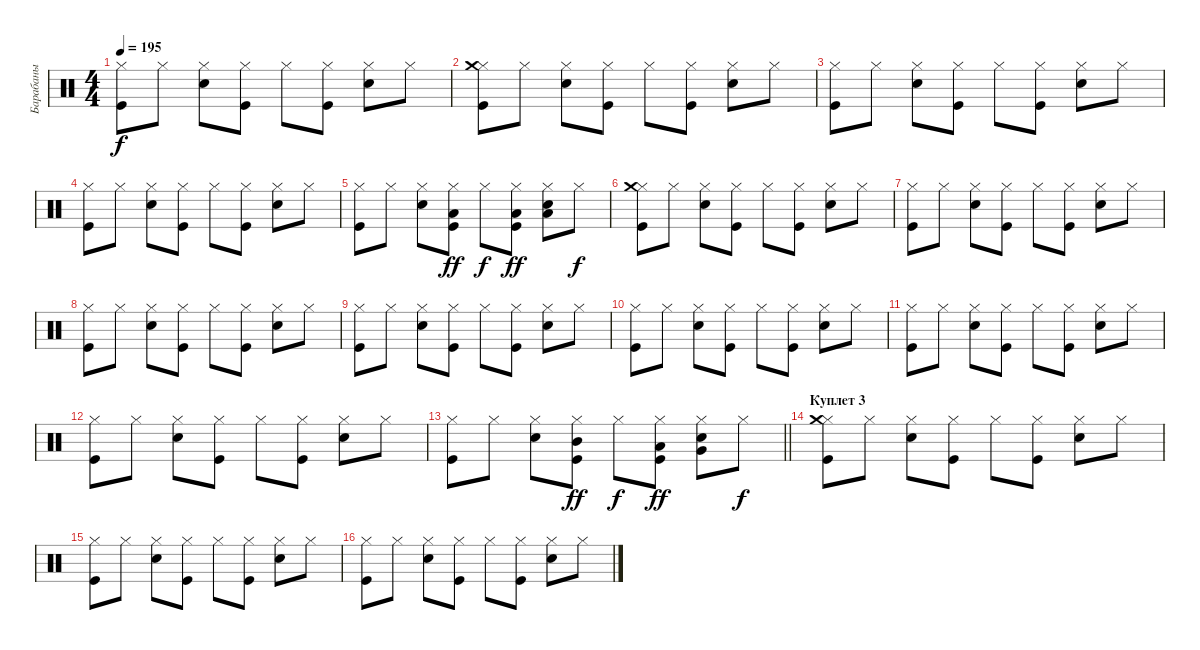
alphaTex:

\track ("Барабаны" "Барабаны") {instrument percussion}
\staff {score}
\articulation defaults
\ts (4 4)
\tempo 195
\clef neutral
\ks c
("Kick (hit)" "Hi-Hat (closed)").8{dy f} "Hi-Hat (closed)".8 ("Snare (hit) 2" "Hi-Hat (closed)").8 ("Kick (hit)" "Hi-Hat (closed)").8 "Hi-Hat (closed)".8 ("Kick (hit)" "Hi-Hat (closed)").8 ("Snare (hit) 2" "Hi-Hat (closed)").8 "Hi-Hat (closed)".8 |
("Kick (hit)" "Hi-Hat (closed)" "Crash medium (hit)").8 "Hi-Hat (closed)".8 ("Snare (hit) 2" "Hi-Hat (closed)").8 ("Kick (hit)" "Hi-Hat (closed)").8 "Hi-Hat (closed)".8 ("Kick (hit)" "Hi-Hat (closed)").8 ("Snare (hit) 2" "Hi-Hat (closed)").8 "Hi-Hat (closed)".8 |
("Kick (hit)" "Hi-Hat (closed)").8 "Hi-Hat (closed)".8 ("Snare (hit) 2" "Hi-Hat (closed)").8 ("Kick (hit)" "Hi-Hat (closed)").8 "Hi-Hat (closed)".8 ("Kick (hit)" "Hi-Hat (closed)").8 ("Snare (hit) 2" "Hi-Hat (closed)").8 "Hi-Hat (closed)".8 |
("Kick (hit)" "Hi-Hat (closed)").8 "Hi-Hat (closed)".8 ("Snare (hit) 2" "Hi-Hat (closed)").8 ("Kick (hit)" "Hi-Hat (closed)").8 "Hi-Hat (closed)".8 ("Kick (hit)" "Hi-Hat (closed)").8 ("Snare (hit) 2" "Hi-Hat (closed)").8 "Hi-Hat (closed)".8 |
("Kick (hit)" "Hi-Hat (closed)").8 "Hi-Hat (closed)".8 ("Snare (hit) 2" "Hi-Hat (closed)").8 ("Kick (hit)" "Hi-Hat (closed)" "Low Tom (hit)").8{dy ff} "Hi-Hat (closed)".8{dy f} ("Kick (hit)" "Hi-Hat (closed)" "Low Tom (hit)").8{dy ff} ("Snare (hit) 2" "Hi-Hat (closed)" "Low Tom (hit)").8 "Hi-Hat (closed)".8{dy f} |
("Kick (hit)" "Hi-Hat (closed)" "Crash medium (hit)").8 "Hi-Hat (closed)".8 ("Snare (hit) 2" "Hi-Hat (closed)").8 ("Kick (hit)" "Hi-Hat (closed)").8 "Hi-Hat (closed)".8 ("Kick (hit)" "Hi-Hat (closed)").8 ("Snare (hit) 2" "Hi-Hat (closed)").8 "Hi-Hat (closed)".8 |
("Kick (hit)" "Hi-Hat (closed)").8 "Hi-Hat (closed)".8 ("Snare (hit) 2" "Hi-Hat (closed)").8 ("Kick (hit)" "Hi-Hat (closed)").8 "Hi-Hat (closed)".8 ("Kick (hit)" "Hi-Hat (closed)").8 ("Snare (hit) 2" "Hi-Hat (closed)").8 "Hi-Hat (closed)".8 |
("Kick (hit)" "Hi-Hat (closed)").8 "Hi-Hat (closed)".8 ("Snare (hit) 2" "Hi-Hat (closed)").8 ("Kick (hit)" "Hi-Hat (closed)").8 "Hi-Hat (closed)".8 ("Kick (hit)" "Hi-Hat (closed)").8 ("Snare (hit) 2" "Hi-Hat (closed)").8 "Hi-Hat (closed)".8 |
("Kick (hit)" "Hi-Hat (closed)").8 "Hi-Hat (closed)".8 ("Snare (hit) 2" "Hi-Hat (closed)").8 ("Kick (hit)" "Hi-Hat (closed)").8 "Hi-Hat (closed)".8 ("Kick (hit)" "Hi-Hat (closed)").8 ("Snare (hit) 2" "Hi-Hat (closed)").8 "Hi-Hat (closed)".8 |
("Kick (hit)" "Hi-Hat (closed)").8 "Hi-Hat (closed)".8 ("Snare (hit) 2" "Hi-Hat (closed)").8 ("Kick (hit)" "Hi-Hat (closed)").8 "Hi-Hat (closed)".8 ("Kick (hit)" "Hi-Hat (closed)").8 ("Snare (hit) 2" "Hi-Hat (closed)").8 "Hi-Hat (closed)".8 |
("Kick (hit)" "Hi-Hat (closed)").8 "Hi-Hat (closed)".8 ("Snare (hit) 2" "Hi-Hat (closed)").8 ("Kick (hit)" "Hi-Hat (closed)").8 "Hi-Hat (closed)".8 ("Kick (hit)" "Hi-Hat (closed)").8 ("Snare (hit) 2" "Hi-Hat (closed)").8 "Hi-Hat (closed)".8 |
("Kick (hit)" "Hi-Hat (closed)").8 "Hi-Hat (closed)".8 ("Snare (hit) 2" "Hi-Hat (closed)").8 ("Kick (hit)" "Hi-Hat (closed)").8 "Hi-Hat (closed)".8 ("Kick (hit)" "Hi-Hat (closed)").8 ("Snare (hit) 2" "Hi-Hat (closed)").8 "Hi-Hat (closed)".8 |
\barLineRight lightlight
("Kick (hit)" "Hi-Hat (closed)").8 "Hi-Hat (closed)".8 ("Snare (hit) 2" "Hi-Hat (closed)").8 ("Kick (hit)" "Hi-Hat (closed)" "Mid Tom (hit)").8{dy ff} "Hi-Hat (closed)".8{dy f} ("Kick (hit)" "Hi-Hat (closed)" "Low Tom (hit)").8{dy ff} ("Snare (hit) 2" "Hi-Hat (closed)" "Very Low Tom (hit)").8 "Hi-Hat (closed)".8{dy f} |
\section ("" "Куплет 3")
("Kick (hit)" "Hi-Hat (closed)" "Crash medium (hit)").8 "Hi-Hat (closed)".8 ("Snare (hit) 2" "Hi-Hat (closed)").8 ("Kick (hit)" "Hi-Hat (closed)").8 "Hi-Hat (closed)".8 ("Kick (hit)" "Hi-Hat (closed)").8 ("Snare (hit) 2" "Hi-Hat (closed)").8 "Hi-Hat (closed)".8 |
("Kick (hit)" "Hi-Hat (closed)").8 "Hi-Hat (closed)".8 ("Snare (hit) 2" "Hi-Hat (closed)").8 ("Kick (hit)" "Hi-Hat (closed)").8 "Hi-Hat (closed)".8 ("Kick (hit)" "Hi-Hat (closed)").8 ("Snare (hit) 2" "Hi-Hat (closed)").8 "Hi-Hat (closed)".8 |
("Kick (hit)" "Hi-Hat (closed)").8 "Hi-Hat (closed)".8 ("Snare (hit) 2" "Hi-Hat (closed)").8 ("Kick (hit)" "Hi-Hat (closed)").8 "Hi-Hat (closed)".8 ("Kick (hit)" "Hi-Hat (closed)").8 ("Snare (hit) 2" "Hi-Hat (closed)").8 "Hi-Hat (closed)".8
